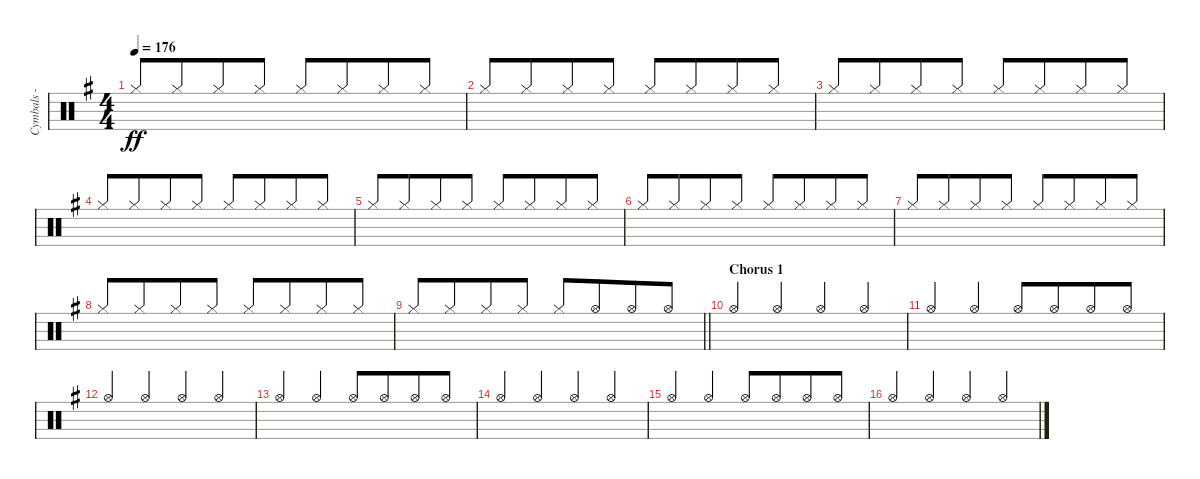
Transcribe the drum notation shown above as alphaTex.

\track ("Cymbals - hi-hat" "Cymbals - ") {instrument percussion}
\staff {score}
\articulation defaults
\ts (4 4)
\tempo 176
\clef neutral
\ks eminor "Hi-Hat (closed)".8{dy ff beam Up} "Hi-Hat (closed)".8{beam Up beam merge} "Hi-Hat (closed)".8{beam Up} "Hi-Hat (closed)".8{beam Up} "Hi-Hat (closed)".8{beam Up} "Hi-Hat (closed)".8{beam Up beam merge} "Hi-Hat (closed)".8{beam Up} "Hi-Hat (closed)".8{beam Up}
|
"Hi-Hat (closed)".8{beam Up} "Hi-Hat (closed)".8{beam Up beam merge} "Hi-Hat (closed)".8{beam Up} "Hi-Hat (closed)".8{beam Up} "Hi-Hat (closed)".8{beam Up} "Hi-Hat (closed)".8{beam Up beam merge} "Hi-Hat (closed)".8{beam Up} "Hi-Hat (closed)".8{beam Up} |
"Hi-Hat (closed)".8{beam Up} "Hi-Hat (closed)".8{beam Up beam merge} "Hi-Hat (closed)".8{beam Up} "Hi-Hat (closed)".8{beam Up} "Hi-Hat (closed)".8{beam Up} "Hi-Hat (closed)".8{beam Up beam merge} "Hi-Hat (closed)".8{beam Up} "Hi-Hat (closed)".8{beam Up} |
"Hi-Hat (closed)".8{beam Up} "Hi-Hat (closed)".8{beam Up beam merge} "Hi-Hat (closed)".8{beam Up} "Hi-Hat (closed)".8{beam Up} "Hi-Hat (closed)".8{beam Up} "Hi-Hat (closed)".8{beam Up beam merge} "Hi-Hat (closed)".8{beam Up} "Hi-Hat (closed)".8{beam Up} |
"Hi-Hat (closed)".8{beam Up} "Hi-Hat (closed)".8{beam Up beam merge} "Hi-Hat (closed)".8{beam Up} "Hi-Hat (closed)".8{beam Up} "Hi-Hat (closed)".8{beam Up} "Hi-Hat (closed)".8{beam Up beam merge} "Hi-Hat (closed)".8{beam Up} "Hi-Hat (closed)".8{beam Up} |
"Hi-Hat (closed)".8{beam Up} "Hi-Hat (closed)".8{beam Up beam merge} "Hi-Hat (closed)".8{beam Up} "Hi-Hat (closed)".8{beam Up} "Hi-Hat (closed)".8{beam Up} "Hi-Hat (closed)".8{beam Up beam merge} "Hi-Hat (closed)".8{beam Up} "Hi-Hat (closed)".8{beam Up} |
"Hi-Hat (closed)".8{beam Up} "Hi-Hat (closed)".8{beam Up beam merge} "Hi-Hat (closed)".8{beam Up} "Hi-Hat (closed)".8{beam Up} "Hi-Hat (closed)".8{beam Up} "Hi-Hat (closed)".8{beam Up beam merge} "Hi-Hat (closed)".8{beam Up} "Hi-Hat (closed)".8{beam Up} |
"Hi-Hat (closed)".8{beam Up} "Hi-Hat (closed)".8{beam Up beam merge} "Hi-Hat (closed)".8{beam Up} "Hi-Hat (closed)".8{beam Up} "Hi-Hat (closed)".8{beam Up} "Hi-Hat (closed)".8{beam Up beam merge} "Hi-Hat (closed)".8{beam Up} "Hi-Hat (closed)".8{beam Up} |
\barLineRight lightlight "Hi-Hat (closed)".8{beam Up} "Hi-Hat (closed)".8{beam Up beam merge} "Hi-Hat (closed)".8{beam Up} "Hi-Hat (closed)".8{beam Up} "Hi-Hat (closed)".8{beam Up beam merge} "Hi-Hat (open)".8{beam Up beam merge} "Hi-Hat (open)".8{beam Up} "Hi-Hat (open)".8{beam Up}
|
\section ("" "Chorus 1")
"Hi-Hat (open)".4{beam Up} "Hi-Hat (open)".4{beam Up} "Hi-Hat (open)".4{beam Up} "Hi-Hat (open)".4{beam Up} |
"Hi-Hat (open)".4{beam Up} "Hi-Hat (open)".4{beam Up} "Hi-Hat (open)".8{beam Up} "Hi-Hat (open)".8{beam Up beam merge} "Hi-Hat (open)".8{beam Up} "Hi-Hat (open)".8{beam Up} |
"Hi-Hat (open)".4{beam Up} "Hi-Hat (open)".4{beam Up} "Hi-Hat (open)".4{beam Up} "Hi-Hat (open)".4{beam Up} |
"Hi-Hat (open)".4{beam Up} "Hi-Hat (open)".4{beam Up} "Hi-Hat (open)".8{beam Up} "Hi-Hat (open)".8{beam Up beam merge} "Hi-Hat (open)".8{beam Up} "Hi-Hat (open)".8{beam Up} |
"Hi-Hat (open)".4{beam Up} "Hi-Hat (open)".4{beam Up} "Hi-Hat (open)".4{beam Up} "Hi-Hat (open)".4{beam Up} |
"Hi-Hat (open)".4{beam Up} "Hi-Hat (open)".4{beam Up} "Hi-Hat (open)".8{beam Up} "Hi-Hat (open)".8{beam Up beam merge} "Hi-Hat (open)".8{beam Up} "Hi-Hat (open)".8{beam Up} |
"Hi-Hat (open)".4{beam Up} "Hi-Hat (open)".4{beam Up} "Hi-Hat (open)".4{beam Up} "Hi-Hat (open)".4{beam Up}
